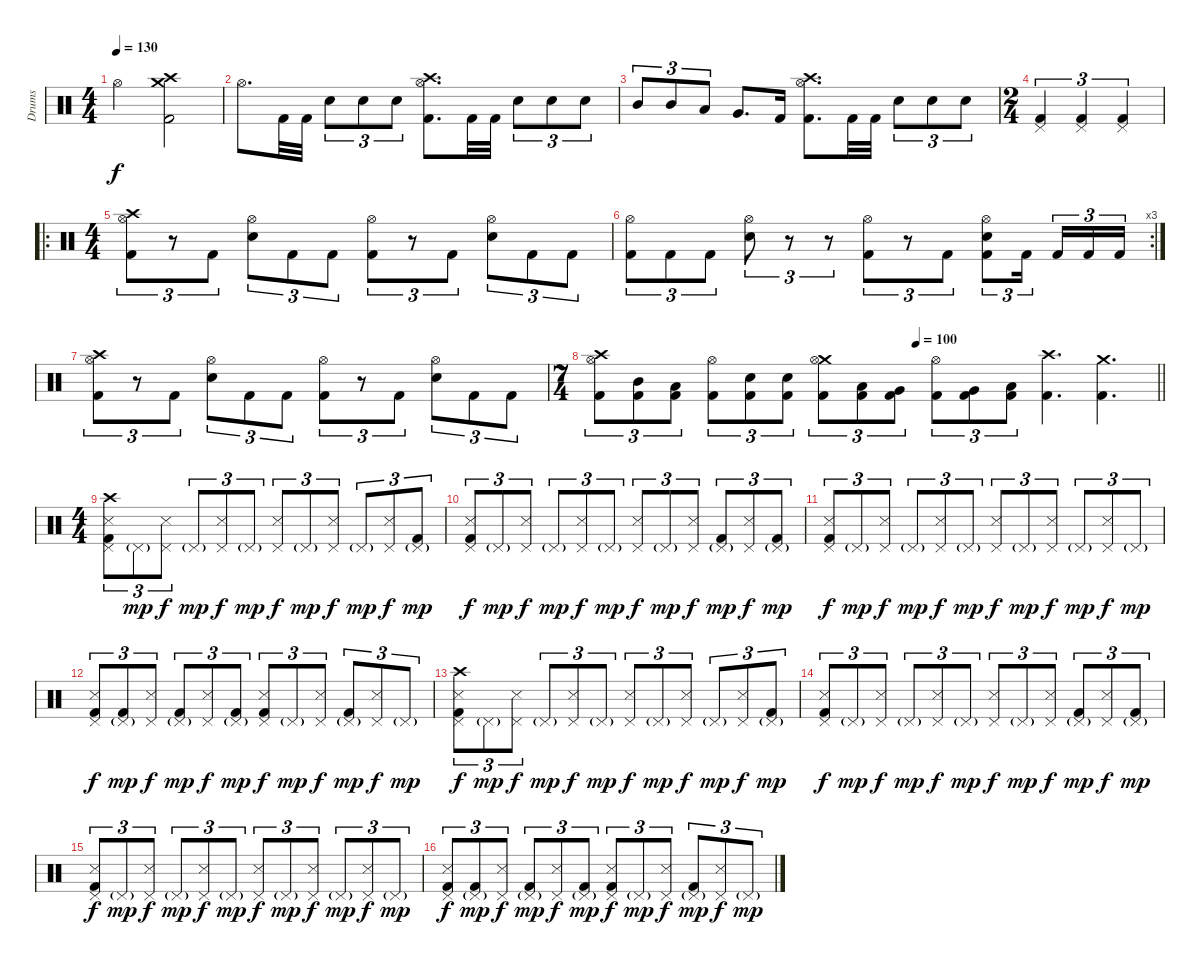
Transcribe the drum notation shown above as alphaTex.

\track ("Drums" "Drums") {instrument percussion}
\staff {score}
\articulation defaults
\ts (4 4)
\tempo 130
\clef neutral
\ks c "Hi-Hat (open)".2{dy f}
("Crash high (hit)" "Crash medium (hit)" "Kick (hit) 2").2 |
"Hi-Hat (open)".8{d} "Kick (hit) 2".32 "Kick (hit) 2".32 "Snare (hit) 2".8{tu (3 2)} "Snare (hit) 2".8{tu (3 2)} "Snare (hit) 2".8{tu (3 2)} ("Crash high (hit)" "Hi-Hat (open)" "Kick (hit) 2").8{d} "Kick (hit) 2".32 "Kick (hit) 2".32 "Snare (hit) 2".8{tu (3 2)} "Snare (hit) 2".8{tu (3 2)} "Snare (hit) 2".8{tu (3 2)} |
"Mid Tom (hit)".8{tu (3 2)} "Mid Tom (hit)".8{tu (3 2)} "Low Tom (hit)".8{tu (3 2)} "Very Low Tom (hit)".8{d} "Kick (hit) 2".16 ("Crash high (hit)" "Hi-Hat (open)" "Kick (hit) 2").8{d} "Kick (hit) 2".32 "Kick (hit) 2".32 "Snare (hit) 2".8{tu (3 2)} "Snare (hit) 2".8{tu (3 2)} "Snare (hit) 2".8{tu (3 2)} |
\ts (2 4)
("Pedal Hi-Hat (hit)" "Kick (hit) 2").4{tu (3 2)} ("Pedal Hi-Hat (hit)" "Kick (hit) 2").4{tu (3 2)} ("Pedal Hi-Hat (hit)" "Kick (hit) 2").4{tu (3 2)} |
\ro
\ts (4 4)
("Crash high (hit)" "Hi-Hat (open)" "Kick (hit) 2").8{tu (3 2)} r.8{tu (3 2)} "Kick (hit) 2".8{tu (3 2)} ("Hi-Hat (open)" "Snare (hit) 2").8{tu (3 2)} "Kick (hit) 2".8{tu (3 2)} "Kick (hit) 2".8{tu (3 2)} ("Hi-Hat (open)" "Kick (hit) 2").8{tu (3 2)} r.8{tu (3 2)} "Kick (hit) 2".8{tu (3 2)} ("Hi-Hat (open)" "Snare (hit) 2").8{tu (3 2)} "Kick (hit) 2".8{tu (3 2)} "Kick (hit) 2".8{tu (3 2)} |
\rc 3
("Hi-Hat (open)" "Kick (hit) 2").8{tu (3 2)} "Kick (hit) 2".8{tu (3 2)} "Kick (hit) 2".8{tu (3 2)} ("Hi-Hat (open)" "Snare (hit) 2").8{tu (3 2)} r.8{tu (3 2)} r.8{tu (3 2)} ("Hi-Hat (open)" "Kick (hit) 2").8{tu (3 2)} r.8{tu (3 2)} "Kick (hit) 2".8{tu (3 2)} ("Hi-Hat (open)" "Snare (hit) 2" "Kick (hit) 2").8{tu (3 2)} "Kick (hit) 2".16{tu (3 2) beam splitsecondary} "Kick (hit) 2".16{tu (3 2)} "Kick (hit) 2".16{tu (3 2)} "Kick (hit) 2".16{tu (3 2)} |
("Crash high (hit)" "Hi-Hat (open)" "Kick (hit) 2").8{tu (3 2)} r.8{tu (3 2)} "Kick (hit) 2".8{tu (3 2)} ("Hi-Hat (open)" "Snare (hit) 2").8{tu (3 2)} "Kick (hit) 2".8{tu (3 2)} "Kick (hit) 2".8{tu (3 2)} ("Hi-Hat (open)" "Kick (hit) 2").8{tu (3 2)} r.8{tu (3 2)} "Kick (hit) 2".8{tu (3 2)} ("Hi-Hat (open)" "Snare (hit) 2").8{tu (3 2)} "Kick (hit) 2".8{tu (3 2)} "Kick (hit) 2".8{tu (3 2)} |
\ts (7 4)
\tempo (100 0.5714285714285714)
\barLineRight lightlight
("Crash high (hit)" "Hi-Hat (open)" "Kick (hit) 2").8{tu (3 2)} ("Mid Tom (hit)" "Kick (hit) 2").8{tu (3 2)} ("Low Tom (hit)" "Kick (hit) 2").8{tu (3 2)} ("Hi-Hat (open)" "Kick (hit) 2").8{tu (3 2)} ("Snare (hit) 2" "Kick (hit) 2").8{tu (3 2)} ("Snare (hit) 2" "Kick (hit) 2").8{tu (3 2)} ("Crash medium (hit)" "Hi-Hat (open)" "Kick (hit) 2").8{tu (3 2)} ("Low Tom (hit)" "Kick (hit) 2").8{tu (3 2)} ("Very Low Tom (hit)" "Kick (hit) 2").8{tu (3 2)} ("Hi-Hat (open)" "Kick (hit) 2").8{tu (3 2)} ("Very Low Tom (hit)" "Kick (hit) 2").8{tu (3 2)} ("Low Floor Tom (hit)" "Kick (hit) 2").8{tu (3 2)} ("Crash high (hit)" "Kick (hit) 2").4{d} ("Crash medium (hit)" "Kick (hit) 2").4{d volume 8} |
\ts (4 4)
("Crash high (hit)" "Pedal Hi-Hat (hit)" "Snare (side stick) 3" "Kick (hit) 2").8{tu (3 2) volume 9} "Pedal Hi-Hat (hit)"{g}.8{tu (3 2) dy mp} ("Pedal Hi-Hat (hit)" "Snare (side stick) 3").8{tu (3 2) dy f} "Pedal Hi-Hat (hit)"{g}.8{tu (3 2) dy mp} ("Pedal Hi-Hat (hit)" "Snare (side stick) 3").8{tu (3 2) dy f} "Pedal Hi-Hat (hit)"{g}.8{tu (3 2) dy mp} ("Pedal Hi-Hat (hit)" "Snare (side stick) 3").8{tu (3 2) dy f} "Pedal Hi-Hat (hit)"{g}.8{tu (3 2) dy mp} ("Pedal Hi-Hat (hit)" "Snare (side stick) 3").8{tu (3 2) dy f} "Pedal Hi-Hat (hit)"{g}.8{tu (3 2) dy mp} ("Pedal Hi-Hat (hit)" "Snare (side stick) 3").8{tu (3 2) dy f} ("Pedal Hi-Hat (hit)"{g} "Kick (hit) 2").8{tu (3 2) dy mp} |
("Pedal Hi-Hat (hit)" "Snare (side stick) 3" "Kick (hit) 2").8{tu (3 2) dy f} "Pedal Hi-Hat (hit)"{g}.8{tu (3 2) dy mp} ("Pedal Hi-Hat (hit)" "Snare (side stick) 3").8{tu (3 2) dy f} "Pedal Hi-Hat (hit)"{g}.8{tu (3 2) dy mp} ("Pedal Hi-Hat (hit)" "Snare (side stick) 3").8{tu (3 2) dy f} "Pedal Hi-Hat (hit)"{g}.8{tu (3 2) dy mp} ("Pedal Hi-Hat (hit)" "Snare (side stick) 3").8{tu (3 2) dy f} "Pedal Hi-Hat (hit)"{g}.8{tu (3 2) dy mp} ("Pedal Hi-Hat (hit)" "Snare (side stick) 3").8{tu (3 2) dy f} ("Pedal Hi-Hat (hit)"{g} "Kick (hit) 2").8{tu (3 2) dy mp} ("Pedal Hi-Hat (hit)" "Snare (side stick) 3").8{tu (3 2) dy f} ("Pedal Hi-Hat (hit)"{g} "Kick (hit) 2").8{tu (3 2) dy mp} |
("Pedal Hi-Hat (hit)" "Snare (side stick) 3" "Kick (hit) 2").8{tu (3 2) dy f} "Pedal Hi-Hat (hit)"{g}.8{tu (3 2) dy mp} ("Pedal Hi-Hat (hit)" "Snare (side stick) 3").8{tu (3 2) dy f} "Pedal Hi-Hat (hit)"{g}.8{tu (3 2) dy mp} ("Pedal Hi-Hat (hit)" "Snare (side stick) 3").8{tu (3 2) dy f} "Pedal Hi-Hat (hit)"{g}.8{tu (3 2) dy mp} ("Pedal Hi-Hat (hit)" "Snare (side stick) 3").8{tu (3 2) dy f} "Pedal Hi-Hat (hit)"{g}.8{tu (3 2) dy mp} ("Pedal Hi-Hat (hit)" "Snare (side stick) 3").8{tu (3 2) dy f} "Pedal Hi-Hat (hit)"{g}.8{tu (3 2) dy mp} ("Pedal Hi-Hat (hit)" "Snare (side stick) 3").8{tu (3 2) dy f} "Pedal Hi-Hat (hit)"{g}.8{tu (3 2) dy mp} |
("Pedal Hi-Hat (hit)" "Snare (side stick) 3" "Kick (hit) 2").8{tu (3 2) dy f} ("Pedal Hi-Hat (hit)"{g} "Kick (hit) 2").8{tu (3 2) dy mp} ("Pedal Hi-Hat (hit)" "Snare (side stick) 3").8{tu (3 2) dy f} ("Pedal Hi-Hat (hit)"{g} "Kick (hit) 2").8{tu (3 2) dy mp} ("Pedal Hi-Hat (hit)" "Snare (side stick) 3").8{tu (3 2) dy f} ("Pedal Hi-Hat (hit)"{g} "Kick (hit) 2").8{tu (3 2) dy mp} ("Pedal Hi-Hat (hit)" "Snare (side stick) 3" "Kick (hit) 2").8{tu (3 2) dy f} "Pedal Hi-Hat (hit)"{g}.8{tu (3 2) dy mp} ("Pedal Hi-Hat (hit)" "Snare (side stick) 3").8{tu (3 2) dy f} ("Pedal Hi-Hat (hit)"{g} "Kick (hit) 2").8{tu (3 2) dy mp} ("Pedal Hi-Hat (hit)" "Snare (side stick) 3").8{tu (3 2) dy f} "Pedal Hi-Hat (hit)"{g}.8{tu (3 2) dy mp} |
("Crash high (hit)" "Pedal Hi-Hat (hit)" "Snare (side stick) 3" "Kick (hit) 2").8{tu (3 2) dy f} "Pedal Hi-Hat (hit)"{g}.8{tu (3 2) dy mp} ("Pedal Hi-Hat (hit)" "Snare (side stick) 3").8{tu (3 2) dy f} "Pedal Hi-Hat (hit)"{g}.8{tu (3 2) dy mp} ("Pedal Hi-Hat (hit)" "Snare (side stick) 3").8{tu (3 2) dy f} "Pedal Hi-Hat (hit)"{g}.8{tu (3 2) dy mp} ("Pedal Hi-Hat (hit)" "Snare (side stick) 3").8{tu (3 2) dy f} "Pedal Hi-Hat (hit)"{g}.8{tu (3 2) dy mp} ("Pedal Hi-Hat (hit)" "Snare (side stick) 3").8{tu (3 2) dy f} "Pedal Hi-Hat (hit)"{g}.8{tu (3 2) dy mp} ("Pedal Hi-Hat (hit)" "Snare (side stick) 3").8{tu (3 2) dy f} ("Pedal Hi-Hat (hit)"{g} "Kick (hit) 2").8{tu (3 2) dy mp} |
("Pedal Hi-Hat (hit)" "Snare (side stick) 3" "Kick (hit) 2").8{tu (3 2) dy f} "Pedal Hi-Hat (hit)"{g}.8{tu (3 2) dy mp} ("Pedal Hi-Hat (hit)" "Snare (side stick) 3").8{tu (3 2) dy f} "Pedal Hi-Hat (hit)"{g}.8{tu (3 2) dy mp} ("Pedal Hi-Hat (hit)" "Snare (side stick) 3").8{tu (3 2) dy f} "Pedal Hi-Hat (hit)"{g}.8{tu (3 2) dy mp} ("Pedal Hi-Hat (hit)" "Snare (side stick) 3").8{tu (3 2) dy f} "Pedal Hi-Hat (hit)"{g}.8{tu (3 2) dy mp} ("Pedal Hi-Hat (hit)" "Snare (side stick) 3").8{tu (3 2) dy f} ("Pedal Hi-Hat (hit)"{g} "Kick (hit) 2").8{tu (3 2) dy mp} ("Pedal Hi-Hat (hit)" "Snare (side stick) 3").8{tu (3 2) dy f} ("Pedal Hi-Hat (hit)"{g} "Kick (hit) 2").8{tu (3 2) dy mp} |
("Pedal Hi-Hat (hit)" "Snare (side stick) 3" "Kick (hit) 2").8{tu (3 2) dy f} "Pedal Hi-Hat (hit)"{g}.8{tu (3 2) dy mp} ("Pedal Hi-Hat (hit)" "Snare (side stick) 3").8{tu (3 2) dy f} "Pedal Hi-Hat (hit)"{g}.8{tu (3 2) dy mp} ("Pedal Hi-Hat (hit)" "Snare (side stick) 3").8{tu (3 2) dy f} "Pedal Hi-Hat (hit)"{g}.8{tu (3 2) dy mp} ("Pedal Hi-Hat (hit)" "Snare (side stick) 3").8{tu (3 2) dy f} "Pedal Hi-Hat (hit)"{g}.8{tu (3 2) dy mp} ("Pedal Hi-Hat (hit)" "Snare (side stick) 3").8{tu (3 2) dy f} "Pedal Hi-Hat (hit)"{g}.8{tu (3 2) dy mp} ("Pedal Hi-Hat (hit)" "Snare (side stick) 3").8{tu (3 2) dy f} "Pedal Hi-Hat (hit)"{g}.8{tu (3 2) dy mp} |
("Pedal Hi-Hat (hit)" "Snare (side stick) 3" "Kick (hit) 2").8{tu (3 2) dy f} ("Pedal Hi-Hat (hit)"{g} "Kick (hit) 2").8{tu (3 2) dy mp} ("Pedal Hi-Hat (hit)" "Snare (side stick) 3").8{tu (3 2) dy f} ("Pedal Hi-Hat (hit)"{g} "Kick (hit) 2").8{tu (3 2) dy mp} ("Pedal Hi-Hat (hit)" "Snare (side stick) 3").8{tu (3 2) dy f} ("Pedal Hi-Hat (hit)"{g} "Kick (hit) 2").8{tu (3 2) dy mp} ("Pedal Hi-Hat (hit)" "Snare (side stick) 3" "Kick (hit) 2").8{tu (3 2) dy f} "Pedal Hi-Hat (hit)"{g}.8{tu (3 2) dy mp} ("Pedal Hi-Hat (hit)" "Snare (side stick) 3").8{tu (3 2) dy f} ("Pedal Hi-Hat (hit)"{g} "Kick (hit) 2").8{tu (3 2) dy mp} ("Pedal Hi-Hat (hit)" "Snare (side stick) 3").8{tu (3 2) dy f} "Pedal Hi-Hat (hit)"{g}.8{tu (3 2) dy mp}
